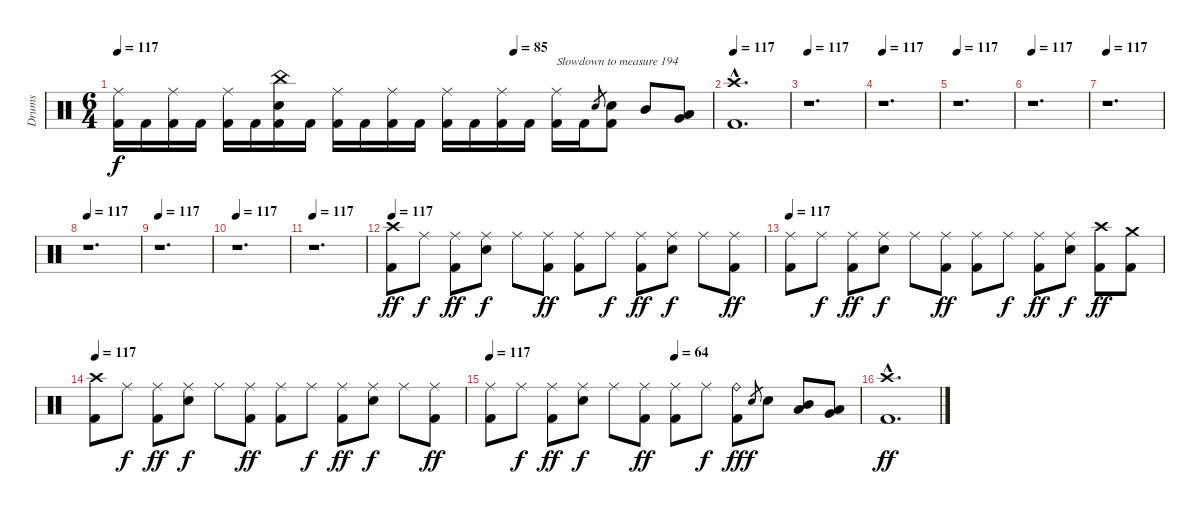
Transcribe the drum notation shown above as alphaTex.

\track ("Drums" "Drums") {instrument percussion}
\staff {score}
\articulation defaults
\ts (6 4)
\tempo 117
\tempo (85 0.6666666666666666)
\clef neutral
\ks c
("Ride (middle)" "Kick (hit) 2").16{dy f} "Kick (hit) 2".16 ("Ride (middle)" "Kick (hit) 2").16 "Kick (hit) 2".16 ("Ride (middle)" "Kick (hit) 2").16 "Kick (hit) 2".16 ("China (hit)" "Electric Snare (hit)" "Kick (hit) 2").16 "Kick (hit) 2".16 ("Ride (middle)" "Kick (hit) 2").16 "Kick (hit) 2".16 ("Ride (middle)" "Kick (hit) 2").16 "Kick (hit) 2".16 ("Ride (middle)" "Kick (hit) 2").16 "Kick (hit) 2".16 ("Ride (middle)" "Kick (hit) 2").16 "Kick (hit) 2".16 ("Ride (middle)" "Kick (hit) 2").16{txt "Slowdown to measure 194"} "Kick (hit) 2".16 "Electric Snare (hit)".8{gr} ("Electric Snare (hit)" "Kick (hit) 2").8 "Mid Tom (hit)".8 ("Low Tom (hit)" "Very Low Tom (hit)").8 |
\tempo 117
("Crash high (hit)"{hac} "Kick (hit) 2"{hac}).1{d} |
\tempo 117
r.1{d} |
\tempo 117
r.1{d} |
\tempo 117
r.1{d} |
\tempo 117
r.1{d} |
\tempo 117
r.1{d} |
\tempo 117
r.1{d} |
\tempo 117
r.1{d} |
\tempo 117
r.1{d} |
\tempo 117
r.1{d} |
\tempo 117
("Crash high (hit)" "Kick (hit) 2").8{dy ff} "Ride (middle)".8{dy f} ("Ride (middle)" "Kick (hit) 2").8{dy ff} ("Ride (middle)" "Electric Snare (hit)").8{dy f} "Ride (middle)".8 ("Ride (middle)" "Kick (hit) 2").8{dy ff} ("Ride (middle)" "Kick (hit) 2").8 "Ride (middle)".8{dy f} ("Ride (middle)" "Kick (hit) 2").8{dy ff} ("Ride (middle)" "Electric Snare (hit)").8{dy f} "Ride (middle)".8 ("Ride (middle)" "Kick (hit) 2").8{dy ff} |
\tempo 117
("Ride (middle)" "Kick (hit) 2").8 "Ride (middle)".8{dy f} ("Ride (middle)" "Kick (hit) 2").8{dy ff} ("Ride (middle)" "Electric Snare (hit)").8{dy f} "Ride (middle)".8 ("Ride (middle)" "Kick (hit) 2").8{dy ff} ("Ride (middle)" "Kick (hit) 2").8 "Ride (middle)".8{dy f} ("Ride (middle)" "Kick (hit) 2").8{dy ff} ("Ride (middle)" "Electric Snare (hit)").8{dy f} ("Crash high (hit)" "Kick (hit) 2").8{dy ff} ("Crash medium (hit)" "Kick (hit) 2").8 |
\tempo 117
("Crash high (hit)" "Kick (hit) 2").8 "Ride (middle)".8{dy f} ("Ride (middle)" "Kick (hit) 2").8{dy ff} ("Ride (middle)" "Electric Snare (hit)").8{dy f} "Ride (middle)".8 ("Ride (middle)" "Kick (hit) 2").8{dy ff} ("Ride (middle)" "Kick (hit) 2").8 "Ride (middle)".8{dy f} ("Ride (middle)" "Kick (hit) 2").8{dy ff} ("Ride (middle)" "Electric Snare (hit)").8{dy f} "Ride (middle)".8 ("Ride (middle)" "Kick (hit) 2").8{dy ff} |
\tempo 117
\tempo (64 0.5)
("Ride (middle)" "Kick (hit) 2").8 "Ride (middle)".8{dy f} ("Ride (middle)" "Kick (hit) 2").8{dy ff} ("Ride (middle)" "Electric Snare (hit)").8{dy f} "Ride (middle)".8 ("Ride (middle)" "Kick (hit) 2").8{dy ff} ("Ride (middle)" "Kick (hit) 2").8 "Ride (middle)".8{dy f} ("Ride (bell)" "Kick (hit) 2").8{dy ff} "Electric Snare (hit)".8{gr dy f} "Electric Snare (hit)".8 ("Mid Tom (hit)" "Low Tom (hit)").8 ("Low Tom (hit)" "Very Low Tom (hit)").8 |
("Crash high (hit)"{hac} "Kick (hit) 2"{hac}).1{d dy ff}
